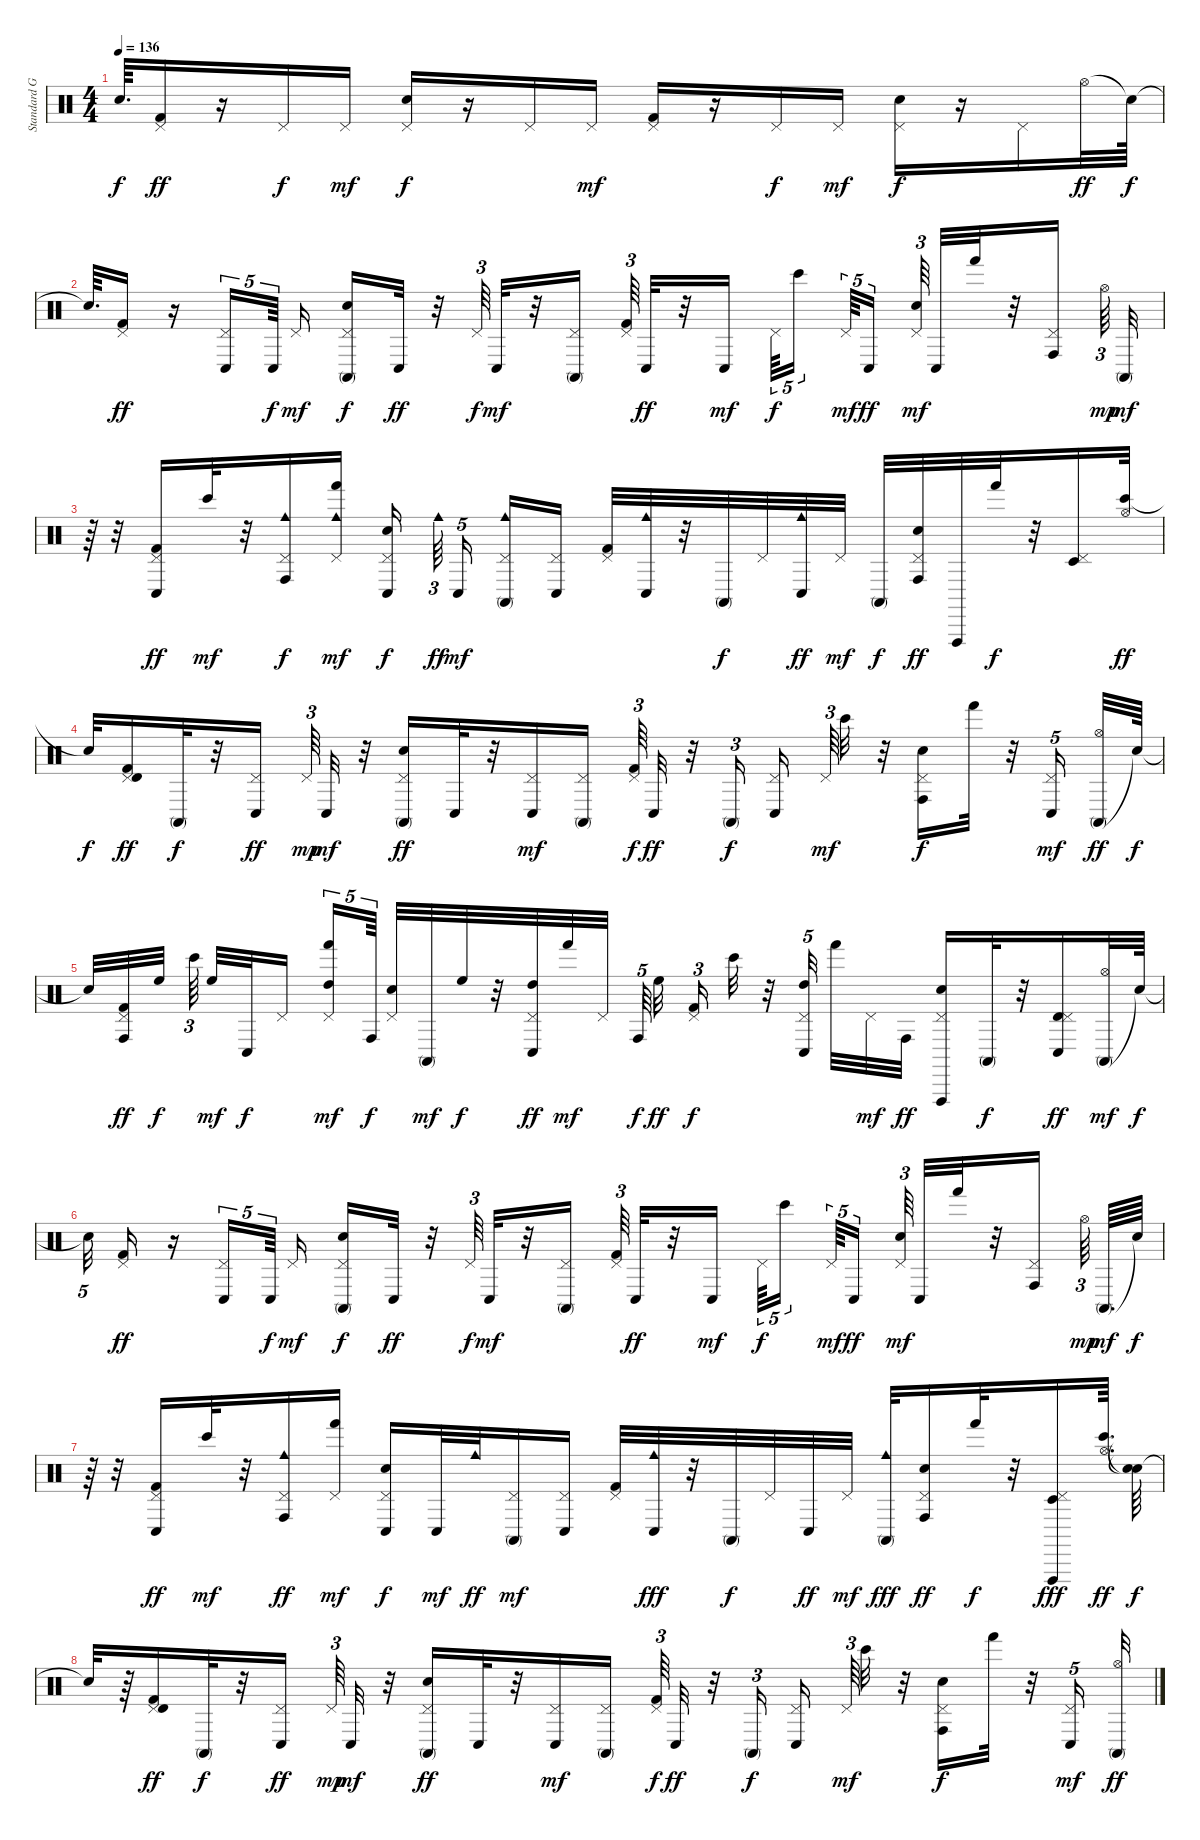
\track ("Standard GM Drum Kit" "Standard G") {instrument percussion}
\staff {score}
\articulation defaults
\ts (4 4)
\tempo 136
\clef neutral
\ks c "Snare (hit)"{t}.64{d dy f}
("Pedal Hi-Hat (hit)" "Kick (hit) 2").16{dy ff} r.16 "Pedal Hi-Hat (hit)".16{dy f} "Pedal Hi-Hat (hit)".16{dy mf} ("Pedal Hi-Hat (hit)" "Electric Snare (hit)").16{dy f} r.16 "Pedal Hi-Hat (hit)".16 "Pedal Hi-Hat (hit)".16{dy mf} ("Pedal Hi-Hat (hit)" "Kick (hit) 2").16 r.16 "Pedal Hi-Hat (hit)".16{dy f} "Pedal Hi-Hat (hit)".16{dy mf} ("Pedal Hi-Hat (hit)" "Electric Snare (hit)").16{dy f} r.16 "Pedal Hi-Hat (hit)".16 "Hi-Hat (open)".32{dy ff} "Snare (hit)"{t}.64{dy f} |
"Snare (hit)"{t}.64{d} ("Pedal Hi-Hat (hit)" "Kick (hit) 2").16{dy ff} r.16 ("Conga low (hit)" "Pedal Hi-Hat (hit)").16{tu (5 4)} "Conga low (hit)".64{tu (5 4) dy f} "Pedal Hi-Hat (hit)".16{dy mf} ("Pedal Hi-Hat (hit)" "Electric Snare (hit)" "Conga high (mute)").16{dy f} "Conga low (hit)".32{dy ff} r.32 "Pedal Hi-Hat (hit)".64{tu (3 2) dy f} "Conga low (hit)".32{dy mf} r.32 ("Pedal Hi-Hat (hit)" "Conga high (mute)").16 ("Kick (hit) 2" "Pedal Hi-Hat (hit)").64{tu (3 2)} "Conga low (hit)".32{dy ff} r.32 "Conga low (hit)".16{dy mf} "Pedal Hi-Hat (hit)".64{tu (5 4) dy f} "Bongo High (hit)".16{tu (5 4)} "Pedal Hi-Hat (hit)".64{tu (5 4) dy mf} "Conga low (hit)".16{tu (5 4) dy ff} ("Electric Snare (hit)" "Pedal Hi-Hat (hit)").64{tu (3 2) dy mf} "Conga low (hit)".32 "Hand (hit)".32 r.32 ("Pedal Hi-Hat (hit)" "Conga high (hit)").16 "Hi-Hat (open)".64{tu (3 2) dy mp} "Conga high (mute)".32{dy mf} |
r.64 r.32 ("Pedal Hi-Hat (hit)" "Kick (hit) 2" "Conga low (hit)").16{dy ff volume 16 balance 8} "Bongo High (hit)".32{dy mf} r.32 ("Cowbell medium (hit)" "Pedal Hi-Hat (hit)" "Conga high (hit)").16{dy f} ("Pedal Hi-Hat (hit)" "Hand (hit)" "Cowbell medium (hit)").16{dy mf} ("Pedal Hi-Hat (hit)" "Electric Snare (hit)" "Conga low (hit)").16{dy f} "Cowbell medium (hit)".64{tu (3 2) dy ff} "Conga low (hit)".16{tu (5 4) dy mf} ("Pedal Hi-Hat (hit)" "Conga high (mute)" "Cowbell medium (hit)").16 ("Pedal Hi-Hat (hit)" "Conga low (hit)").16 ("Pedal Hi-Hat (hit)" "Kick (hit) 2").32 ("Conga low (hit)" "Cowbell medium (hit)").32 r.32 "Conga high (mute)".32{dy f} "Pedal Hi-Hat (hit)".32 ("Cowbell medium (hit)" "Conga low (hit)").32{dy ff} "Pedal Hi-Hat (hit)".32{dy mf} "Conga high (mute)".32{dy f} ("Pedal Hi-Hat (hit)" "Electric Snare (hit)" "Conga high (hit)").32{dy ff} "Vibraslap (hit)".32 "Hand (hit)".32{dy f} r.32 ("Timbale low (hit)" "Pedal Hi-Hat (hit)").16 ("Bongo High (hit)" "Hi-Hat (open)").32{dy ff} |
"Snare (hit)"{t}.32{dy f} ("Pedal Hi-Hat (hit)" "Kick (hit) 2" "Timbale high (hit)").16{dy ff} "Conga high (mute)".32{dy f} r.32 ("Pedal Hi-Hat (hit)" "Conga low (hit)").16{dy ff} "Pedal Hi-Hat (hit)".64{tu (3 2) dy mp} "Conga low (hit)".32{dy mf} r.32 ("Pedal Hi-Hat (hit)" "Electric Snare (hit)" "Conga high (mute)").16{dy ff} "Conga low (hit)".32 r.32 ("Pedal Hi-Hat (hit)" "Conga low (hit)").16{dy mf} ("Pedal Hi-Hat (hit)" "Conga high (mute)").16 ("Kick (hit) 2" "Pedal Hi-Hat (hit)").64{tu (3 2) dy f} "Conga low (hit)".32{dy ff} r.32 "Conga high (mute)".16{tu (3 2) dy f} ("Pedal Hi-Hat (hit)" "Conga low (hit)").16 "Pedal Hi-Hat (hit)".64{tu (3 2) dy mf} "Bongo High (hit)".32 r.32 ("Electric Snare (hit)" "Pedal Hi-Hat (hit)" "Conga high (hit)").16{dy f} "Hand (hit)".32 r.32 ("Pedal Hi-Hat (hit)" "Conga low (hit)").16{tu (5 4) dy mf} ("Conga high (mute)" "Hi-Hat (open)").32{dy ff} "Snare (hit)"{t}.64{dy f} |
"Snare (hit)"{t}.32 ("Pedal Hi-Hat (hit)" "Kick (hit) 2" "Conga high (hit)").32{dy ff} "High Floor Tom (hit)".32{dy f} "Bongo High (hit)".64{tu (3 2)} "High Floor Tom (hit)".32{dy mf} "Conga low (hit)".32{dy f} "Pedal Hi-Hat (hit)".16 ("Hand (hit)" "High Tom (hit)" "Pedal Hi-Hat (hit)").16{tu (5 4) dy mf} "Conga high (hit)".64{tu (5 4) dy f} ("Pedal Hi-Hat (hit)" "Electric Snare (hit)").32 "Conga high (mute)".32{dy mf} "High Floor Tom (hit)".32{dy f} r.32 ("Conga low (hit)" "High Tom (hit)" "Pedal Hi-Hat (hit)").32{dy ff} "Hand (hit)".32{dy mf} "Pedal Hi-Hat (hit)".32 "Conga high (hit)".64{tu (5 4) dy f} "High Floor Tom (hit)".32{dy ff} ("Kick (hit) 2" "Pedal Hi-Hat (hit)").16{tu (3 2) dy f} "Bongo High (hit)".32 r.32 ("Conga low (hit)" "High Tom (hit)" "Pedal Hi-Hat (hit)").32{tu (5 4)} "Hand (hit)".32 "Pedal Hi-Hat (hit)".32{dy mf} "Conga high (hit)".32{dy ff} ("Vibraslap (hit)" "Electric Snare (hit)" "Pedal Hi-Hat (hit)").16 "Conga high (mute)".32{dy f} r.32 ("Conga low (hit)" "Timbale high (hit)" "Pedal Hi-Hat (hit)").16{dy ff} ("Conga high (mute)" "Hi-Hat (open)").32{dy mf} "Snare (hit)"{t}.64{dy f} |
"Snare (hit)"{t}.32{tu (5 4)} ("Pedal Hi-Hat (hit)" "Kick (hit) 2").16{dy ff} r.16 ("Conga low (hit)" "Pedal Hi-Hat (hit)").16{tu (5 4)} "Conga low (hit)".64{tu (5 4) dy f} "Pedal Hi-Hat (hit)".16{dy mf} ("Pedal Hi-Hat (hit)" "Electric Snare (hit)" "Conga high (mute)").16{dy f} "Conga low (hit)".32{dy ff} r.32 "Pedal Hi-Hat (hit)".64{tu (3 2) dy f} "Conga low (hit)".32{dy mf} r.32 ("Pedal Hi-Hat (hit)" "Conga high (mute)").16 ("Kick (hit) 2" "Pedal Hi-Hat (hit)").64{tu (3 2)} "Conga low (hit)".32{dy ff} r.32 "Conga low (hit)".16{dy mf} "Pedal Hi-Hat (hit)".64{tu (5 4) dy f} "Bongo High (hit)".16{tu (5 4)} "Pedal Hi-Hat (hit)".64{tu (5 4) dy mf} "Conga low (hit)".16{tu (5 4) dy ff} ("Electric Snare (hit)" "Pedal Hi-Hat (hit)").64{tu (3 2) dy mf} "Conga low (hit)".32 "Hand (hit)".32 r.32 ("Pedal Hi-Hat (hit)" "Conga high (hit)").16 "Hi-Hat (open)".64{tu (3 2) dy mp} "Conga high (mute)".64{d dy mf} "Snare (hit)"{t}.64{dy f} |
r.64 r.32 ("Pedal Hi-Hat (hit)" "Kick (hit) 2" "Conga low (hit)").16{dy ff volume 16 balance 8} "Bongo High (hit)".32{dy mf} r.32 ("Cowbell medium (hit)" "Pedal Hi-Hat (hit)" "Conga high (hit)").16{dy ff} ("Pedal Hi-Hat (hit)" "Hand (hit)").16{dy mf} ("Pedal Hi-Hat (hit)" "Electric Snare (hit)" "Conga low (hit)").16{dy f} "Conga low (hit)".32{dy mf} "Cowbell medium (hit)".32{dy ff} ("Pedal Hi-Hat (hit)" "Conga high (mute)").16{dy mf} ("Pedal Hi-Hat (hit)" "Conga low (hit)").16 ("Pedal Hi-Hat (hit)" "Kick (hit) 2").32 ("Conga low (hit)" "Cowbell medium (hit)").32{dy fff} r.32 "Conga high (mute)".32{dy f} "Pedal Hi-Hat (hit)".32 "Conga low (hit)".32{dy ff} "Pedal Hi-Hat (hit)".32{dy mf} ("Conga high (mute)" "Cowbell medium (hit)").32{dy fff} ("Pedal Hi-Hat (hit)" "Electric Snare (hit)" "Conga high (hit)").16{dy ff} "Hand (hit)".32{dy f} r.32 ("Timbale low (hit)" "Vibraslap (hit)" "Pedal Hi-Hat (hit)").16{dy fff} ("Bongo High (hit)" "Hi-Hat (open)").64{d dy ff} ("Snare (hit)"{t} "Snare (hit)"{t}).64{dy f} |
"Snare (hit)"{t}.32 r.64 ("Pedal Hi-Hat (hit)" "Kick (hit) 2" "Timbale high (hit)").16{dy ff} "Conga high (mute)".32{dy f} r.32 ("Pedal Hi-Hat (hit)" "Conga low (hit)").16{dy ff} "Pedal Hi-Hat (hit)".64{tu (3 2) dy mp} "Conga low (hit)".32{dy mf} r.32 ("Pedal Hi-Hat (hit)" "Electric Snare (hit)" "Conga high (mute)").16{dy ff} "Conga low (hit)".32 r.32 ("Pedal Hi-Hat (hit)" "Conga low (hit)").16{dy mf} ("Pedal Hi-Hat (hit)" "Conga high (mute)").16 ("Kick (hit) 2" "Pedal Hi-Hat (hit)").64{tu (3 2) dy f} "Conga low (hit)".32{dy ff} r.32 "Conga high (mute)".16{tu (3 2) dy f} ("Pedal Hi-Hat (hit)" "Conga low (hit)").16 "Pedal Hi-Hat (hit)".64{tu (3 2) dy mf} "Bongo High (hit)".32 r.32 ("Electric Snare (hit)" "Pedal Hi-Hat (hit)" "Conga high (hit)").16{dy f} "Hand (hit)".32 r.32 ("Pedal Hi-Hat (hit)" "Conga low (hit)").16{tu (5 4) dy mf} ("Conga high (mute)" "Hi-Hat (open)").32{dy ff}
